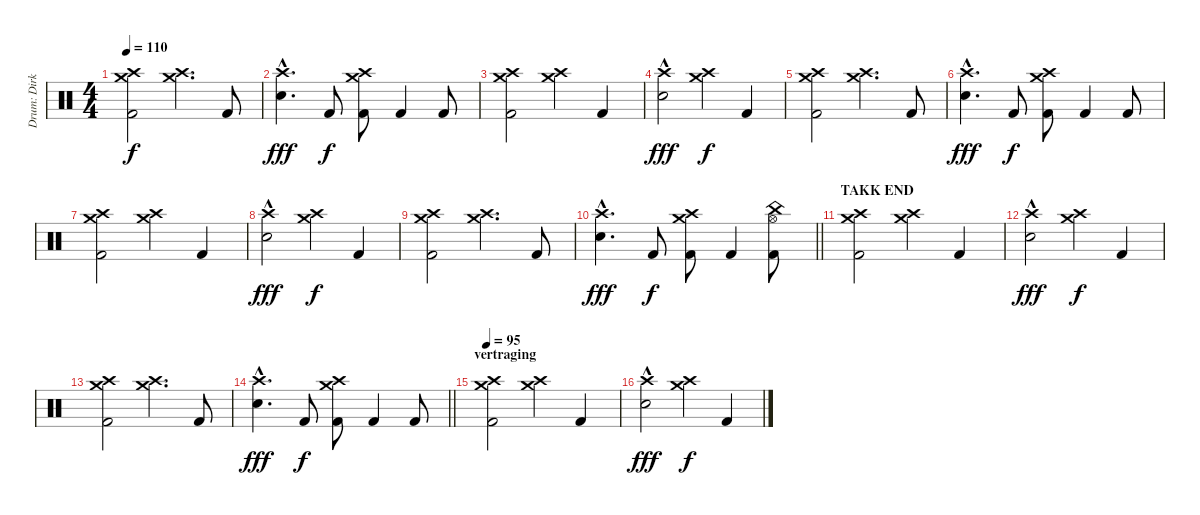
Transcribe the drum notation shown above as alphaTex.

\track ("Drum: Dirk" "Drum: Dirk") {instrument percussion}
\staff {score}
\articulation defaults
\ts (4 4)
\tempo 110
\clef neutral
\ks c
("Crash high (hit)" "Crash medium (hit)" "Kick (hit) 2").2{dy f} ("Crash high (hit)" "Crash medium (hit)").4{d} "Kick (hit) 2".8 |
("Crash high (hit)" "Electric Snare (hit)"{hac}).4{d dy fff} "Kick (hit) 2".8{dy f} ("Crash high (hit)" "Crash medium (hit)" "Kick (hit) 2").8 "Kick (hit) 2".4 "Kick (hit) 2".8 |
("Crash high (hit)" "Crash medium (hit)" "Kick (hit) 2").2 ("Crash high (hit)" "Crash medium (hit)").4 "Kick (hit) 2".4 |
("Crash high (hit)" "Electric Snare (hit)"{hac}).2{dy fff} ("Crash high (hit)" "Crash medium (hit)").4{dy f} "Kick (hit) 2".4 |
("Crash high (hit)" "Crash medium (hit)" "Kick (hit) 2").2 ("Crash high (hit)" "Crash medium (hit)").4{d} "Kick (hit) 2".8 |
("Crash high (hit)" "Electric Snare (hit)"{hac}).4{d dy fff} "Kick (hit) 2".8{dy f} ("Crash high (hit)" "Crash medium (hit)" "Kick (hit) 2").8 "Kick (hit) 2".4 "Kick (hit) 2".8 |
("Crash high (hit)" "Crash medium (hit)" "Kick (hit) 2").2 ("Crash high (hit)" "Crash medium (hit)").4 "Kick (hit) 2".4 |
("Crash high (hit)" "Electric Snare (hit)"{hac}).2{dy fff} ("Crash high (hit)" "Crash medium (hit)").4{dy f} "Kick (hit) 2".4 |
("Crash high (hit)" "Crash medium (hit)" "Kick (hit) 2").2 ("Crash high (hit)" "Crash medium (hit)").4{d} "Kick (hit) 2".8 |
\barLineRight lightlight
("Crash high (hit)" "Electric Snare (hit)"{hac}).4{d dy fff} "Kick (hit) 2".8{dy f} ("Crash high (hit)" "Crash medium (hit)" "Kick (hit) 2").8 "Kick (hit) 2".4 ("China (hit)" "Hi-Hat (open)" "Kick (hit) 2").8 |
\section ("" "TAKK END")
("Crash high (hit)" "Crash medium (hit)" "Kick (hit) 2").2 ("Crash high (hit)" "Crash medium (hit)").4 "Kick (hit) 2".4 |
("Crash high (hit)" "Electric Snare (hit)"{hac}).2{dy fff} ("Crash high (hit)" "Crash medium (hit)").4{dy f} "Kick (hit) 2".4 |
("Crash high (hit)" "Crash medium (hit)" "Kick (hit) 2").2 ("Crash high (hit)" "Crash medium (hit)").4{d} "Kick (hit) 2".8 |
\barLineRight lightlight
("Crash high (hit)" "Electric Snare (hit)"{hac}).4{d dy fff} "Kick (hit) 2".8{dy f} ("Crash high (hit)" "Crash medium (hit)" "Kick (hit) 2").8 "Kick (hit) 2".4 "Kick (hit) 2".8 |
\section ("" "vertraging")
\tempo 95
("Crash high (hit)" "Crash medium (hit)" "Kick (hit) 2").2 ("Crash high (hit)" "Crash medium (hit)").4 "Kick (hit) 2".4 |
("Crash high (hit)" "Electric Snare (hit)"{hac}).2{dy fff} ("Crash high (hit)" "Crash medium (hit)").4{dy f} "Kick (hit) 2".4
